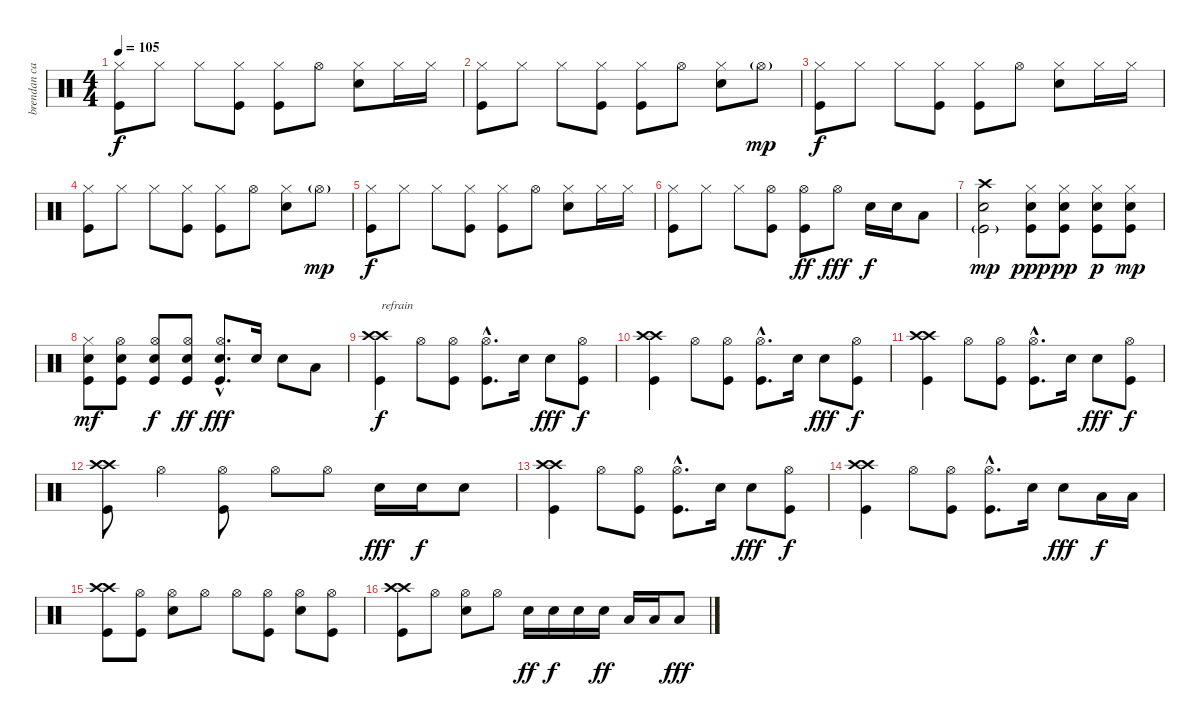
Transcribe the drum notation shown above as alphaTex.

\track ("brendan canty" "brendan ca") {instrument percussion}
\staff {score}
\articulation defaults
\ts (4 4)
\tempo 105
\clef neutral
\ks c
("Hi-Hat (closed)" "Kick (hit)").8{dy f} "Hi-Hat (closed)".8 "Hi-Hat (closed)".8 ("Hi-Hat (closed)" "Kick (hit)").8 ("Hi-Hat (closed)" "Kick (hit)").8 "Hi-Hat (open)".8 ("Hi-Hat (closed)" "Electric Snare (hit)").8 "Hi-Hat (closed)".16 "Hi-Hat (closed)".16 |
("Hi-Hat (closed)" "Kick (hit)").8 "Hi-Hat (closed)".8 "Hi-Hat (closed)".8 ("Hi-Hat (closed)" "Kick (hit)").8 ("Hi-Hat (closed)" "Kick (hit)").8 "Hi-Hat (open)".8 ("Hi-Hat (closed)" "Electric Snare (hit)").8 "Hi-Hat (open)"{g}.8{dy mp} |
("Hi-Hat (closed)" "Kick (hit)").8{dy f} "Hi-Hat (closed)".8 "Hi-Hat (closed)".8 ("Hi-Hat (closed)" "Kick (hit)").8 ("Hi-Hat (closed)" "Kick (hit)").8 "Hi-Hat (open)".8 ("Hi-Hat (closed)" "Electric Snare (hit)").8 "Hi-Hat (closed)".16 "Hi-Hat (closed)".16 |
("Hi-Hat (closed)" "Kick (hit)").8 "Hi-Hat (closed)".8 "Hi-Hat (closed)".8 ("Hi-Hat (closed)" "Kick (hit)").8 ("Hi-Hat (closed)" "Kick (hit)").8 "Hi-Hat (open)".8 ("Hi-Hat (closed)" "Electric Snare (hit)").8 "Hi-Hat (open)"{g}.8{dy mp} |
("Hi-Hat (closed)" "Kick (hit)").8{dy f} "Hi-Hat (closed)".8 "Hi-Hat (closed)".8 ("Hi-Hat (closed)" "Kick (hit)").8 ("Hi-Hat (closed)" "Kick (hit)").8 "Hi-Hat (open)".8 ("Hi-Hat (closed)" "Electric Snare (hit)").8 "Hi-Hat (closed)".16 "Hi-Hat (closed)".16 |
("Hi-Hat (closed)" "Kick (hit)").8 "Hi-Hat (closed)".8 "Hi-Hat (closed)".8 ("Hi-Hat (open)" "Kick (hit)").8 ("Hi-Hat (open)" "Kick (hit)").8{dy ff} "Hi-Hat (open)".8{dy fff} "Electric Snare (hit)".16{dy f} "Electric Snare (hit)".16 "Low Floor Tom (hit)".8 |
("Crash high (hit)" "Electric Snare (hit)" "Kick (hit)"{g}).2{dy mp} ("Hi-Hat (closed)" "Electric Snare (hit)" "Kick (hit)").8{dy ppp} ("Hi-Hat (closed)" "Electric Snare (hit)" "Kick (hit)").8{dy pp} ("Hi-Hat (closed)" "Electric Snare (hit)" "Kick (hit)").8{dy p} ("Hi-Hat (closed)" "Electric Snare (hit)" "Kick (hit)").8{dy mp} |
("Hi-Hat (closed)" "Electric Snare (hit)" "Kick (hit)").8{dy mf} ("Hi-Hat (open)" "Electric Snare (hit)" "Kick (hit)").8 ("Hi-Hat (open)" "Electric Snare (hit)" "Kick (hit)").8{dy f} ("Hi-Hat (open)" "Electric Snare (hit)" "Kick (hit)").8{dy ff} ("Hi-Hat (open)"{hac} "Electric Snare (hit)"{hac} "Kick (hit)"{hac}).8{d dy fff} "Electric Snare (hit)".16 "Electric Snare (hit)".8 "Low Tom (hit)".8 |
("Crash high (hit)" "Crash high (hit)" "Kick (hit)").4{txt "refrain" dy f} "Hi-Hat (open)".8 ("Hi-Hat (open)" "Kick (hit)").8 ("Hi-Hat (open)"{hac} "Kick (hit)"{hac}).8{d} "Electric Snare (hit)".16 "Electric Snare (hit)".8{dy fff} ("Hi-Hat (open)" "Kick (hit)").8{dy f} |
("Crash high (hit)" "Crash high (hit)" "Kick (hit)").4 "Hi-Hat (open)".8 ("Hi-Hat (open)" "Kick (hit)").8 ("Hi-Hat (open)"{hac} "Kick (hit)"{hac}).8{d} "Electric Snare (hit)".16 "Electric Snare (hit)".8{dy fff} ("Hi-Hat (open)" "Kick (hit)").8{dy f} |
("Crash high (hit)" "Crash high (hit)" "Kick (hit)").4 "Hi-Hat (open)".8 ("Hi-Hat (open)" "Kick (hit)").8 ("Hi-Hat (open)"{hac} "Kick (hit)"{hac}).8{d} "Electric Snare (hit)".16 "Electric Snare (hit)".8{dy fff} ("Hi-Hat (open)" "Kick (hit)").8{dy f} |
("Crash high (hit)" "Crash high (hit)" "Kick (hit)").8 "Hi-Hat (open)".4 ("Hi-Hat (open)" "Kick (hit)").8 "Hi-Hat (open)".8 "Hi-Hat (open)".8 "Electric Snare (hit)".16{dy fff} "Electric Snare (hit)".16{dy f} "Electric Snare (hit)".8 |
("Crash high (hit)" "Crash high (hit)" "Kick (hit)").4 "Hi-Hat (open)".8 ("Hi-Hat (open)" "Kick (hit)").8 ("Hi-Hat (open)"{hac} "Kick (hit)"{hac}).8{d} "Electric Snare (hit)".16 "Electric Snare (hit)".8{dy fff} ("Hi-Hat (open)" "Kick (hit)").8{dy f} |
("Crash high (hit)" "Crash high (hit)" "Kick (hit)").4 "Hi-Hat (open)".8 ("Hi-Hat (open)" "Kick (hit)").8 ("Hi-Hat (open)"{hac} "Kick (hit)"{hac}).8{d} "Electric Snare (hit)".16 "Electric Snare (hit)".8{dy fff} "Low Tom (hit)".16{dy f} "Low Tom (hit)".16 |
("Crash high (hit)" "Crash high (hit)" "Kick (hit)").8 ("Hi-Hat (open)" "Kick (hit)").8 ("Hi-Hat (open)" "Electric Snare (hit)").8 "Hi-Hat (open)".8 "Hi-Hat (open)".8 ("Hi-Hat (open)" "Kick (hit)").8 ("Hi-Hat (open)" "Electric Snare (hit)").8 ("Hi-Hat (open)" "Kick (hit)").8 |
("Crash high (hit)" "Crash high (hit)" "Kick (hit)").8 "Hi-Hat (open)".8 ("Hi-Hat (open)" "Electric Snare (hit)").8 "Hi-Hat (open)".8 "Electric Snare (hit)".16{dy ff} "Electric Snare (hit)".16{dy f} "Electric Snare (hit)".16 "Electric Snare (hit)".16{dy ff} "Low Tom (hit)".16 "Low Tom (hit)".16 "Low Tom (hit)".8{dy fff}
